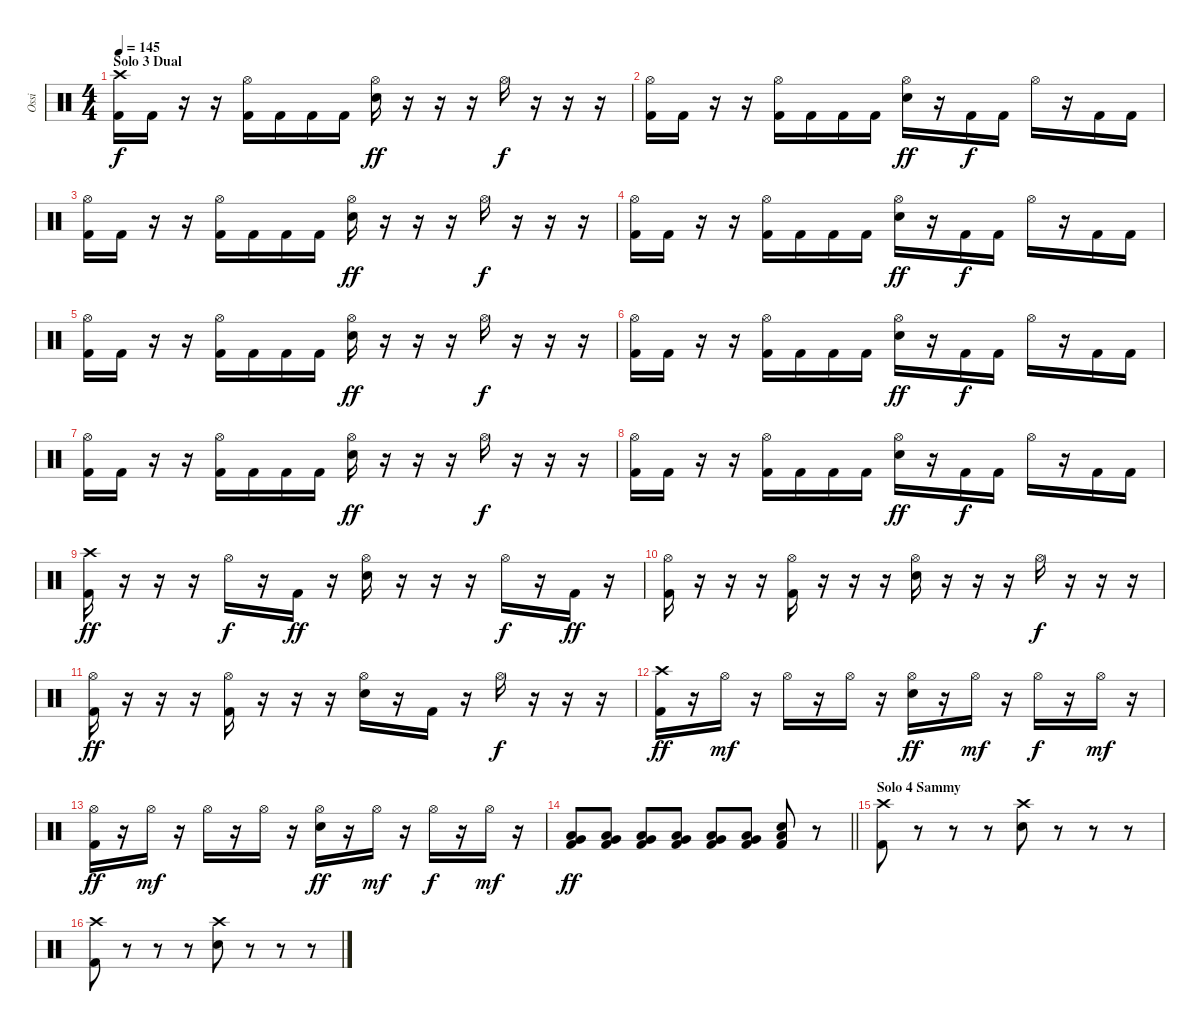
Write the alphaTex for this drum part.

\track ("Ossi" "Ossi") {instrument percussion}
\staff {score}
\articulation defaults
\ts (4 4)
\section ("" "Solo 3 Dual")
\tempo 145
\clef neutral
\ks c
("Crash high (hit)" "Kick (hit) 2").16{dy f} "Kick (hit) 2".16 r.16 r.16 ("Hi-Hat (open)" "Kick (hit) 2").16 "Kick (hit) 2".16 "Kick (hit) 2".16 "Kick (hit) 2".16 ("Hi-Hat (open)" "Electric Snare (hit)").16{dy ff} r.16 r.16 r.16 "Hi-Hat (open)".16{dy f} r.16 r.16 r.16 |
("Hi-Hat (open)" "Kick (hit) 2").16 "Kick (hit) 2".16 r.16 r.16 ("Hi-Hat (open)" "Kick (hit) 2").16 "Kick (hit) 2".16 "Kick (hit) 2".16 "Kick (hit) 2".16 ("Hi-Hat (open)" "Electric Snare (hit)").16{dy ff} r.16 "Kick (hit) 2".16{dy f} "Kick (hit) 2".16 "Hi-Hat (open)".16 r.16 "Kick (hit) 2".16 "Kick (hit) 2".16 |
("Hi-Hat (open)" "Kick (hit) 2").16 "Kick (hit) 2".16 r.16 r.16 ("Hi-Hat (open)" "Kick (hit) 2").16 "Kick (hit) 2".16 "Kick (hit) 2".16 "Kick (hit) 2".16 ("Hi-Hat (open)" "Electric Snare (hit)").16{dy ff} r.16 r.16 r.16 "Hi-Hat (open)".16{dy f} r.16 r.16 r.16 |
("Hi-Hat (open)" "Kick (hit) 2").16 "Kick (hit) 2".16 r.16 r.16 ("Hi-Hat (open)" "Kick (hit) 2").16 "Kick (hit) 2".16 "Kick (hit) 2".16 "Kick (hit) 2".16 ("Hi-Hat (open)" "Electric Snare (hit)").16{dy ff} r.16 "Kick (hit) 2".16{dy f} "Kick (hit) 2".16 "Hi-Hat (open)".16 r.16 "Kick (hit) 2".16 "Kick (hit) 2".16 |
("Hi-Hat (open)" "Kick (hit) 2").16 "Kick (hit) 2".16 r.16 r.16 ("Hi-Hat (open)" "Kick (hit) 2").16 "Kick (hit) 2".16 "Kick (hit) 2".16 "Kick (hit) 2".16 ("Hi-Hat (open)" "Electric Snare (hit)").16{dy ff} r.16 r.16 r.16 "Hi-Hat (open)".16{dy f} r.16 r.16 r.16 |
("Hi-Hat (open)" "Kick (hit) 2").16 "Kick (hit) 2".16 r.16 r.16 ("Hi-Hat (open)" "Kick (hit) 2").16 "Kick (hit) 2".16 "Kick (hit) 2".16 "Kick (hit) 2".16 ("Hi-Hat (open)" "Electric Snare (hit)").16{dy ff} r.16 "Kick (hit) 2".16{dy f} "Kick (hit) 2".16 "Hi-Hat (open)".16 r.16 "Kick (hit) 2".16 "Kick (hit) 2".16 |
("Hi-Hat (open)" "Kick (hit) 2").16 "Kick (hit) 2".16 r.16 r.16 ("Hi-Hat (open)" "Kick (hit) 2").16 "Kick (hit) 2".16 "Kick (hit) 2".16 "Kick (hit) 2".16 ("Hi-Hat (open)" "Electric Snare (hit)").16{dy ff} r.16 r.16 r.16 "Hi-Hat (open)".16{dy f} r.16 r.16 r.16 |
("Hi-Hat (open)" "Kick (hit) 2").16 "Kick (hit) 2".16 r.16 r.16 ("Hi-Hat (open)" "Kick (hit) 2").16 "Kick (hit) 2".16 "Kick (hit) 2".16 "Kick (hit) 2".16 ("Hi-Hat (open)" "Electric Snare (hit)").16{dy ff} r.16 "Kick (hit) 2".16{dy f} "Kick (hit) 2".16 "Hi-Hat (open)".16 r.16 "Kick (hit) 2".16 "Kick (hit) 2".16 |
("Crash high (hit)" "Kick (hit) 2").16{dy ff} r.16 r.16 r.16 "Hi-Hat (open)".16{dy f} r.16 "Kick (hit) 2".16{dy ff} r.16 ("Hi-Hat (open)" "Electric Snare (hit)").16 r.16 r.16 r.16 "Hi-Hat (open)".16{dy f} r.16 "Kick (hit) 2".16{dy ff} r.16 |
("Hi-Hat (open)" "Kick (hit) 2").16 r.16 r.16 r.16 ("Hi-Hat (open)" "Kick (hit) 2").16 r.16 r.16 r.16 ("Hi-Hat (open)" "Electric Snare (hit)").16 r.16 r.16 r.16 "Hi-Hat (open)".16{dy f} r.16 r.16 r.16 |
("Hi-Hat (open)" "Kick (hit) 2").16{dy ff} r.16 r.16 r.16 ("Hi-Hat (open)" "Kick (hit) 2").16 r.16 r.16 r.16 ("Hi-Hat (open)" "Electric Snare (hit)").16 r.16 "Kick (hit) 2".16 r.16 "Hi-Hat (open)".16{dy f} r.16 r.16 r.16 |
("Crash high (hit)" "Kick (hit) 2").16{dy ff} r.16 "Hi-Hat (open)".16{dy mf} r.16 "Hi-Hat (open)".16 r.16 "Hi-Hat (open)".16 r.16 ("Hi-Hat (open)" "Electric Snare (hit)").16{dy ff} r.16 "Hi-Hat (open)".16{dy mf} r.16 "Hi-Hat (open)".16{dy f} r.16 "Hi-Hat (open)".16{dy mf} r.16 |
("Hi-Hat (open)" "Kick (hit) 2").16{dy ff} r.16 "Hi-Hat (open)".16{dy mf} r.16 "Hi-Hat (open)".16 r.16 "Hi-Hat (open)".16 r.16 ("Hi-Hat (open)" "Electric Snare (hit)").16{dy ff} r.16 "Hi-Hat (open)".16{dy mf} r.16 "Hi-Hat (open)".16{dy f} r.16 "Hi-Hat (open)".16{dy mf} r.16 |
\barLineRight lightlight
("Low Tom (hit)" "Very Low Tom (hit)" "Kick (hit) 2").8{dy ff} ("Low Tom (hit)" "Very Low Tom (hit)" "Kick (hit) 2").8 ("Low Tom (hit)" "Very Low Tom (hit)" "Kick (hit) 2").8 ("Low Tom (hit)" "Very Low Tom (hit)" "Kick (hit) 2").8 ("Low Tom (hit)" "Very Low Tom (hit)" "Kick (hit) 2").8 ("Low Tom (hit)" "Very Low Tom (hit)" "Kick (hit) 2").8 ("Low Tom (hit)" "Electric Snare (hit)" "Kick (hit) 2").8 r.8 |
\section ("" "Solo 4 Sammy")
("Crash high (hit)" "Kick (hit) 2").8 r.8 r.8 r.8 ("Crash high (hit)" "Electric Snare (hit)").8 r.8 r.8 r.8 |
("Crash high (hit)" "Kick (hit) 2").8 r.8 r.8 r.8 ("Crash high (hit)" "Electric Snare (hit)").8 r.8 r.8 r.8
